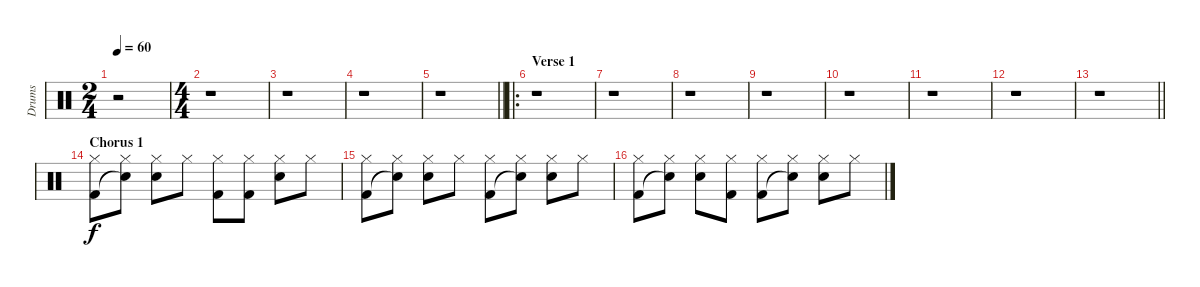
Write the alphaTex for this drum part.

\track ("Drums" "Drums") {instrument percussion}
\staff {score}
\articulation defaults
\ts (2 4)
\tempo 60
\clef neutral
\ks c
r.2{dy f} |
\ts (4 4)
r.1 |
r.1 |
r.1 |
\barLineRight lightlight
r.1 |
\ro
\section ("" "Verse 1")
r.1 |
r.1 |
r.1 |
r.1 |
r.1 |
r.1 |
r.1 |
\barLineRight lightlight
r.1 |
\section ("" "Chorus 1")
("Hi-Hat (closed)" "Kick (hit) 2").8 ("Hi-Hat (closed)" "Snare (hit)"{t}).8 ("Hi-Hat (closed)" "Snare (hit) 2").8 "Hi-Hat (closed)".8 ("Hi-Hat (closed)" "Kick (hit) 2").8 ("Hi-Hat (closed)" "Kick (hit) 2").8 ("Hi-Hat (closed)" "Snare (hit) 2").8 "Hi-Hat (closed)".8 |
("Hi-Hat (closed)" "Kick (hit) 2").8 ("Hi-Hat (closed)" "Snare (hit)"{t}).8 ("Hi-Hat (closed)" "Snare (hit) 2").8 "Hi-Hat (closed)".8 ("Hi-Hat (closed)" "Kick (hit) 2").8 ("Hi-Hat (closed)" "Snare (hit)"{t}).8 ("Hi-Hat (closed)" "Snare (hit) 2").8 "Hi-Hat (closed)".8 |
("Hi-Hat (closed)" "Kick (hit) 2").8 ("Hi-Hat (closed)" "Snare (hit)"{t}).8 ("Hi-Hat (closed)" "Snare (hit) 2").8 ("Hi-Hat (closed)" "Kick (hit) 2").8 ("Hi-Hat (closed)" "Kick (hit) 2").8 ("Hi-Hat (closed)" "Snare (hit)"{t}).8 ("Hi-Hat (closed)" "Snare (hit) 2").8 "Hi-Hat (closed)".8
